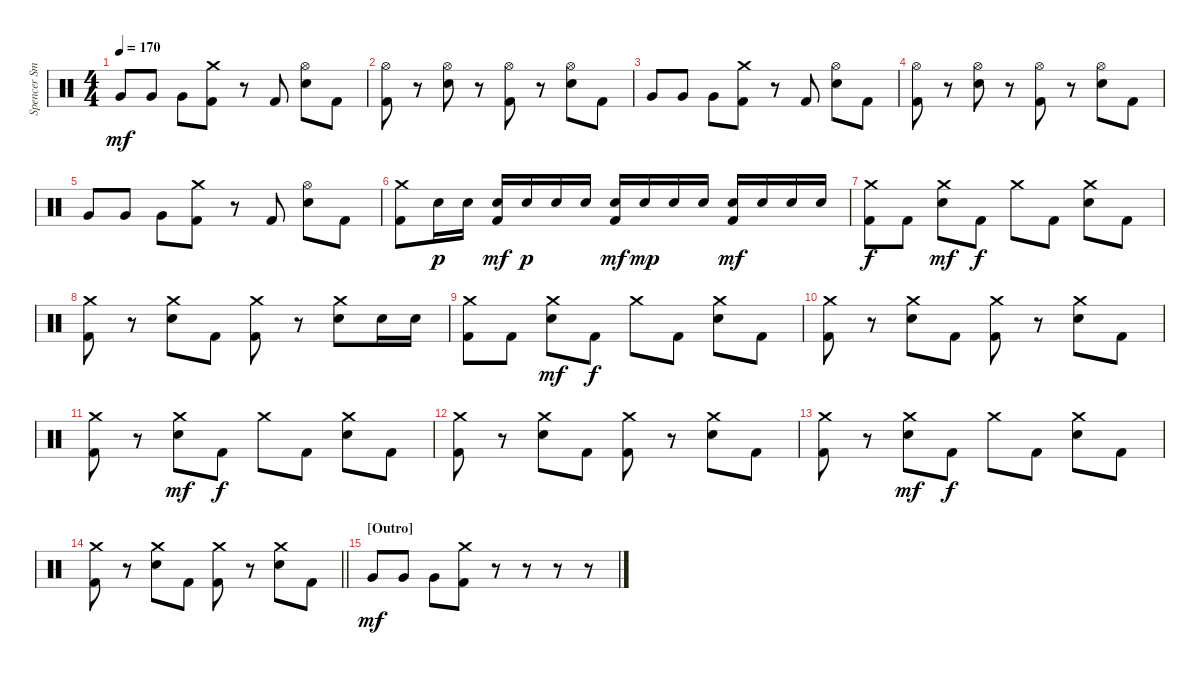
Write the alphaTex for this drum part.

\track ("Spencer Smith" "Spencer Sm") {instrument percussion}
\staff {score}
\articulation defaults
\ts (4 4)
\tempo 170
\clef neutral
\ks c "Very Low Tom (hit)".8{dy mf} "Very Low Tom (hit)".8 "Very Low Tom (hit)".8
("Crash medium (hit)" "Kick (hit) 2").8 r.8 "Kick (hit) 2".8 ("Hi-Hat (open)" "Electric Snare (hit)").8 "Kick (hit) 2".8 |
("Hi-Hat (open)" "Kick (hit) 2").8 r.8 ("Hi-Hat (open)" "Electric Snare (hit)").8 r.8 ("Hi-Hat (open)" "Kick (hit) 2").8 r.8 ("Hi-Hat (open)" "Electric Snare (hit)").8 "Kick (hit) 2".8 |
"Very Low Tom (hit)".8 "Very Low Tom (hit)".8 "Very Low Tom (hit)".8 ("Crash medium (hit)" "Kick (hit) 2").8 r.8 "Kick (hit) 2".8 ("Hi-Hat (open)" "Electric Snare (hit)").8 "Kick (hit) 2".8 |
("Hi-Hat (open)" "Kick (hit) 2").8 r.8 ("Hi-Hat (open)" "Electric Snare (hit)").8 r.8 ("Hi-Hat (open)" "Kick (hit) 2").8 r.8 ("Hi-Hat (open)" "Electric Snare (hit)").8 "Kick (hit) 2".8 |
"Very Low Tom (hit)".8 "Very Low Tom (hit)".8 "Very Low Tom (hit)".8 ("Crash medium (hit)" "Kick (hit) 2").8 r.8 "Kick (hit) 2".8 ("Hi-Hat (open)" "Electric Snare (hit)").8 "Kick (hit) 2".8 |
("Crash medium (hit)" "Kick (hit) 2").8 "Electric Snare (hit)".16{dy p} "Electric Snare (hit)".16 ("Electric Snare (hit)" "Kick (hit) 2").16{dy mf} "Electric Snare (hit)".16{dy p} "Electric Snare (hit)".16 "Electric Snare (hit)".16 ("Electric Snare (hit)" "Kick (hit) 2").16{dy mf} "Electric Snare (hit)".16{dy mp} "Electric Snare (hit)".16 "Electric Snare (hit)".16 ("Electric Snare (hit)" "Kick (hit) 2").16{dy mf} "Electric Snare (hit)".16 "Electric Snare (hit)".16 "Electric Snare (hit)".16 |
("Crash medium (hit)" "Kick (hit) 2").8{dy f} "Kick (hit) 2".8 ("Crash medium (hit)" "Electric Snare (hit)").8{dy mf} "Kick (hit) 2".8{dy f} "Crash medium (hit)".8 "Kick (hit) 2".8 ("Crash medium (hit)" "Electric Snare (hit)").8 "Kick (hit) 2".8 |
("Crash medium (hit)" "Kick (hit) 2").8 r.8 ("Crash medium (hit)" "Electric Snare (hit)").8 "Kick (hit) 2".8 ("Crash medium (hit)" "Kick (hit) 2").8 r.8 ("Crash medium (hit)" "Electric Snare (hit)").8 "Electric Snare (hit)".16 "Electric Snare (hit)".16 |
("Crash medium (hit)" "Kick (hit) 2").8 "Kick (hit) 2".8 ("Crash medium (hit)" "Electric Snare (hit)").8{dy mf} "Kick (hit) 2".8{dy f} "Crash medium (hit)".8 "Kick (hit) 2".8 ("Crash medium (hit)" "Electric Snare (hit)").8 "Kick (hit) 2".8 |
("Crash medium (hit)" "Kick (hit) 2").8 r.8 ("Crash medium (hit)" "Electric Snare (hit)").8 "Kick (hit) 2".8 ("Crash medium (hit)" "Kick (hit) 2").8 r.8 ("Crash medium (hit)" "Electric Snare (hit)").8 "Kick (hit) 2".8 |
("Crash medium (hit)" "Kick (hit) 2").8 r.8 ("Crash medium (hit)" "Electric Snare (hit)").8{dy mf} "Kick (hit) 2".8{dy f} "Crash medium (hit)".8 "Kick (hit) 2".8 ("Crash medium (hit)" "Electric Snare (hit)").8 "Kick (hit) 2".8 |
("Crash medium (hit)" "Kick (hit) 2").8 r.8 ("Crash medium (hit)" "Electric Snare (hit)").8 "Kick (hit) 2".8 ("Crash medium (hit)" "Kick (hit) 2").8 r.8 ("Crash medium (hit)" "Electric Snare (hit)").8 "Kick (hit) 2".8 |
("Crash medium (hit)" "Kick (hit) 2").8 r.8 ("Crash medium (hit)" "Electric Snare (hit)").8{dy mf} "Kick (hit) 2".8{dy f} "Crash medium (hit)".8 "Kick (hit) 2".8 ("Crash medium (hit)" "Electric Snare (hit)").8 "Kick (hit) 2".8 |
\barLineRight lightlight
("Crash medium (hit)" "Kick (hit) 2").8 r.8 ("Crash medium (hit)" "Electric Snare (hit)").8 "Kick (hit) 2".8 ("Crash medium (hit)" "Kick (hit) 2").8 r.8 ("Crash medium (hit)" "Electric Snare (hit)").8 "Kick (hit) 2".8 |
\section ("" "[Outro]")
"Very Low Tom (hit)".8{dy mf} "Very Low Tom (hit)".8 "Very Low Tom (hit)".8 ("Crash medium (hit)" "Kick (hit) 2").8 r.8 r.8 r.8 r.8
